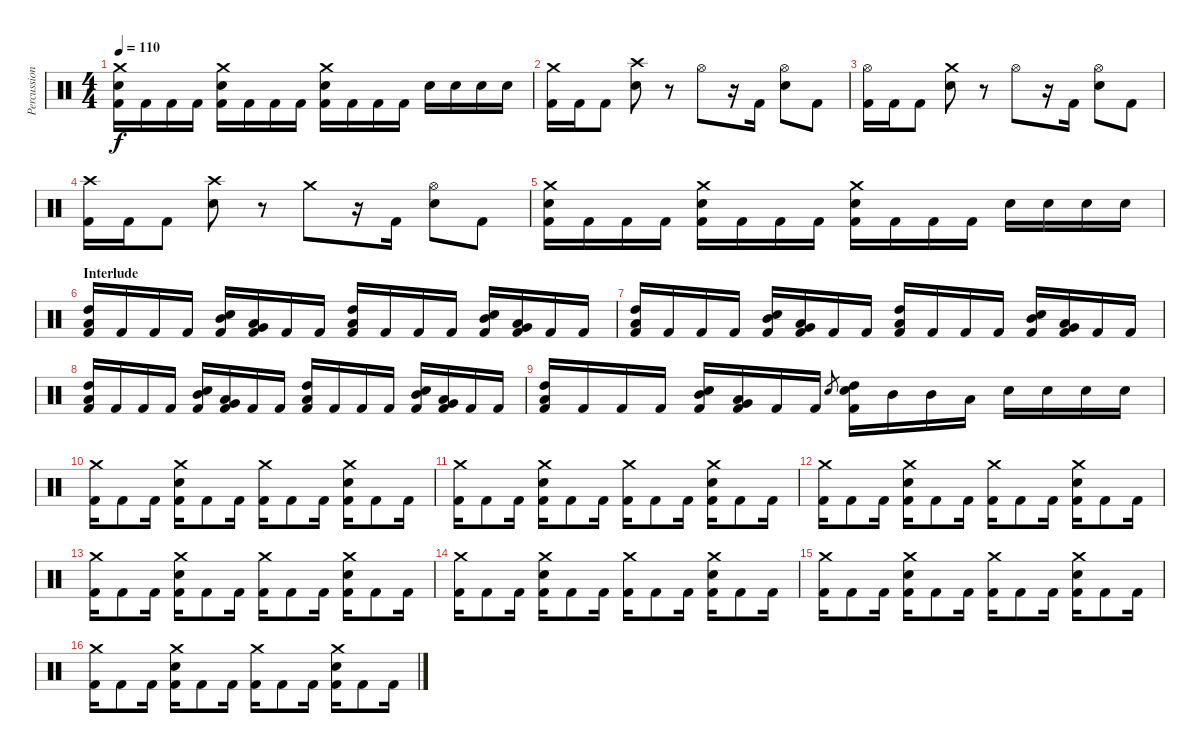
\track ("Percussions" "Percussion") {instrument percussion}
\staff {score}
\articulation defaults
\ts (4 4)
\tempo 110
\clef neutral
\ks c
("Crash medium (hit)" "Electric Snare (hit)" "Kick (hit) 2").16{dy f} "Kick (hit) 2".16 "Kick (hit) 2".16 "Kick (hit) 2".16 ("Crash medium (hit)" "Electric Snare (hit)" "Kick (hit) 2").16 "Kick (hit) 2".16 "Kick (hit) 2".16 "Kick (hit) 2".16 ("Crash medium (hit)" "Electric Snare (hit)" "Kick (hit) 2").16 "Kick (hit) 2".16 "Kick (hit) 2".16 "Kick (hit) 2".16 "Electric Snare (hit)".16 "Electric Snare (hit)".16 "Electric Snare (hit)".16 "Electric Snare (hit)".16 |
("Crash medium (hit)" "Kick (hit) 2").16 "Kick (hit) 2".16 "Kick (hit) 2".8 ("Crash high (hit)" "Electric Snare (hit)").8 r.8 "Hi-Hat (open)".8 r.16 "Kick (hit) 2".16 ("Hi-Hat (open)" "Electric Snare (hit)").8 "Kick (hit) 2".8 |
("Hi-Hat (open)" "Kick (hit) 2").16 "Kick (hit) 2".16 "Kick (hit) 2".8 ("Crash medium (hit)" "Electric Snare (hit)").8 r.8 "Hi-Hat (open)".8 r.16 "Kick (hit) 2".16 ("Hi-Hat (open)" "Electric Snare (hit)").8 "Kick (hit) 2".8 |
("Crash high (hit)" "Kick (hit) 2").16 "Kick (hit) 2".16 "Kick (hit) 2".8 ("Crash high (hit)" "Electric Snare (hit)").8 r.8 "Crash medium (hit)".8 r.16 "Kick (hit) 2".16 ("Hi-Hat (open)" "Electric Snare (hit)").8 "Kick (hit) 2".8 |
("Crash medium (hit)" "Electric Snare (hit)" "Kick (hit) 2").16 "Kick (hit) 2".16 "Kick (hit) 2".16 "Kick (hit) 2".16 ("Crash medium (hit)" "Electric Snare (hit)" "Kick (hit) 2").16 "Kick (hit) 2".16 "Kick (hit) 2".16 "Kick (hit) 2".16 ("Crash medium (hit)" "Electric Snare (hit)" "Kick (hit) 2").16 "Kick (hit) 2".16 "Kick (hit) 2".16 "Kick (hit) 2".16 "Electric Snare (hit)".16 "Electric Snare (hit)".16 "Electric Snare (hit)".16 "Electric Snare (hit)".16 |
\section ("" "Interlude")
("High Tom (hit)" "Low Tom (hit)" "Kick (hit) 2").16 "Kick (hit) 2".16 "Kick (hit) 2".16 "Kick (hit) 2".16 ("Mid Tom (hit)" "Electric Snare (hit)" "Kick (hit) 2").16 ("Low Tom (hit)" "Very Low Tom (hit)" "Kick (hit) 2").16 "Kick (hit) 2".16 "Kick (hit) 2".16 ("High Tom (hit)" "Low Tom (hit)" "Kick (hit) 2").16 "Kick (hit) 2".16 "Kick (hit) 2".16 "Kick (hit) 2".16 ("Mid Tom (hit)" "Electric Snare (hit)" "Kick (hit) 2").16 ("Low Tom (hit)" "Very Low Tom (hit)" "Kick (hit) 2").16 "Kick (hit) 2".16 "Kick (hit) 2".16 |
("High Tom (hit)" "Low Tom (hit)" "Kick (hit) 2").16 "Kick (hit) 2".16 "Kick (hit) 2".16 "Kick (hit) 2".16 ("Mid Tom (hit)" "Electric Snare (hit)" "Kick (hit) 2").16 ("Low Tom (hit)" "Very Low Tom (hit)" "Kick (hit) 2").16 "Kick (hit) 2".16 "Kick (hit) 2".16 ("High Tom (hit)" "Low Tom (hit)" "Kick (hit) 2").16 "Kick (hit) 2".16 "Kick (hit) 2".16 "Kick (hit) 2".16 ("Mid Tom (hit)" "Electric Snare (hit)" "Kick (hit) 2").16 ("Low Tom (hit)" "Very Low Tom (hit)" "Kick (hit) 2").16 "Kick (hit) 2".16 "Kick (hit) 2".16 |
("High Tom (hit)" "Low Tom (hit)" "Kick (hit) 2").16 "Kick (hit) 2".16 "Kick (hit) 2".16 "Kick (hit) 2".16 ("Mid Tom (hit)" "Electric Snare (hit)" "Kick (hit) 2").16 ("Low Tom (hit)" "Very Low Tom (hit)" "Kick (hit) 2").16 "Kick (hit) 2".16 "Kick (hit) 2".16 ("High Tom (hit)" "Low Tom (hit)" "Kick (hit) 2").16 "Kick (hit) 2".16 "Kick (hit) 2".16 "Kick (hit) 2".16 ("Mid Tom (hit)" "Electric Snare (hit)" "Kick (hit) 2").16 ("Low Tom (hit)" "Very Low Tom (hit)" "Kick (hit) 2").16 "Kick (hit) 2".16 "Kick (hit) 2".16 |
("High Tom (hit)" "Low Tom (hit)" "Kick (hit) 2").16 "Kick (hit) 2".16 "Kick (hit) 2".16 "Kick (hit) 2".16 ("Mid Tom (hit)" "Electric Snare (hit)" "Kick (hit) 2").16 ("Low Tom (hit)" "Very Low Tom (hit)" "Kick (hit) 2").16 "Kick (hit) 2".16 "Kick (hit) 2".16 "Electric Snare (hit)".8{gr} ("High Tom (hit)" "Electric Snare (hit)" "Kick (hit) 2").16 "Mid Tom (hit)".16 "Mid Tom (hit)".16 "Low Tom (hit)".16 "Electric Snare (hit)".16 "Electric Snare (hit)".16 "Electric Snare (hit)".16 "Electric Snare (hit)".16 |
("Crash medium (hit)" "Kick (hit) 2").16 "Kick (hit) 2".8 "Kick (hit) 2".16 ("Crash medium (hit)" "Electric Snare (hit)" "Kick (hit) 2").16 "Kick (hit) 2".8 "Kick (hit) 2".16 ("Crash medium (hit)" "Kick (hit) 2").16 "Kick (hit) 2".8 "Kick (hit) 2".16 ("Crash medium (hit)" "Electric Snare (hit)" "Kick (hit) 2").16 "Kick (hit) 2".8 "Kick (hit) 2".16 |
("Crash medium (hit)" "Kick (hit) 2").16 "Kick (hit) 2".8 "Kick (hit) 2".16 ("Crash medium (hit)" "Electric Snare (hit)" "Kick (hit) 2").16 "Kick (hit) 2".8 "Kick (hit) 2".16 ("Crash medium (hit)" "Kick (hit) 2").16 "Kick (hit) 2".8 "Kick (hit) 2".16 ("Crash medium (hit)" "Electric Snare (hit)" "Kick (hit) 2").16 "Kick (hit) 2".8 "Kick (hit) 2".16 |
("Crash medium (hit)" "Kick (hit) 2").16 "Kick (hit) 2".8 "Kick (hit) 2".16 ("Crash medium (hit)" "Electric Snare (hit)" "Kick (hit) 2").16 "Kick (hit) 2".8 "Kick (hit) 2".16 ("Crash medium (hit)" "Kick (hit) 2").16 "Kick (hit) 2".8 "Kick (hit) 2".16 ("Crash medium (hit)" "Electric Snare (hit)" "Kick (hit) 2").16 "Kick (hit) 2".8 "Kick (hit) 2".16 |
("Crash medium (hit)" "Kick (hit) 2").16 "Kick (hit) 2".8 "Kick (hit) 2".16 ("Crash medium (hit)" "Electric Snare (hit)" "Kick (hit) 2").16 "Kick (hit) 2".8 "Kick (hit) 2".16 ("Crash medium (hit)" "Kick (hit) 2").16 "Kick (hit) 2".8 "Kick (hit) 2".16 ("Crash medium (hit)" "Electric Snare (hit)" "Kick (hit) 2").16 "Kick (hit) 2".8 "Kick (hit) 2".16 |
("Crash medium (hit)" "Kick (hit) 2").16 "Kick (hit) 2".8 "Kick (hit) 2".16 ("Crash medium (hit)" "Electric Snare (hit)" "Kick (hit) 2").16 "Kick (hit) 2".8 "Kick (hit) 2".16 ("Crash medium (hit)" "Kick (hit) 2").16 "Kick (hit) 2".8 "Kick (hit) 2".16 ("Crash medium (hit)" "Electric Snare (hit)" "Kick (hit) 2").16 "Kick (hit) 2".8 "Kick (hit) 2".16 |
("Crash medium (hit)" "Kick (hit) 2").16 "Kick (hit) 2".8 "Kick (hit) 2".16 ("Crash medium (hit)" "Electric Snare (hit)" "Kick (hit) 2").16 "Kick (hit) 2".8 "Kick (hit) 2".16 ("Crash medium (hit)" "Kick (hit) 2").16 "Kick (hit) 2".8 "Kick (hit) 2".16 ("Crash medium (hit)" "Electric Snare (hit)" "Kick (hit) 2").16 "Kick (hit) 2".8 "Kick (hit) 2".16 |
("Crash medium (hit)" "Kick (hit) 2").16 "Kick (hit) 2".8 "Kick (hit) 2".16 ("Crash medium (hit)" "Electric Snare (hit)" "Kick (hit) 2").16 "Kick (hit) 2".8 "Kick (hit) 2".16 ("Crash medium (hit)" "Kick (hit) 2").16 "Kick (hit) 2".8 "Kick (hit) 2".16 ("Crash medium (hit)" "Electric Snare (hit)" "Kick (hit) 2").16 "Kick (hit) 2".8 "Kick (hit) 2".16
